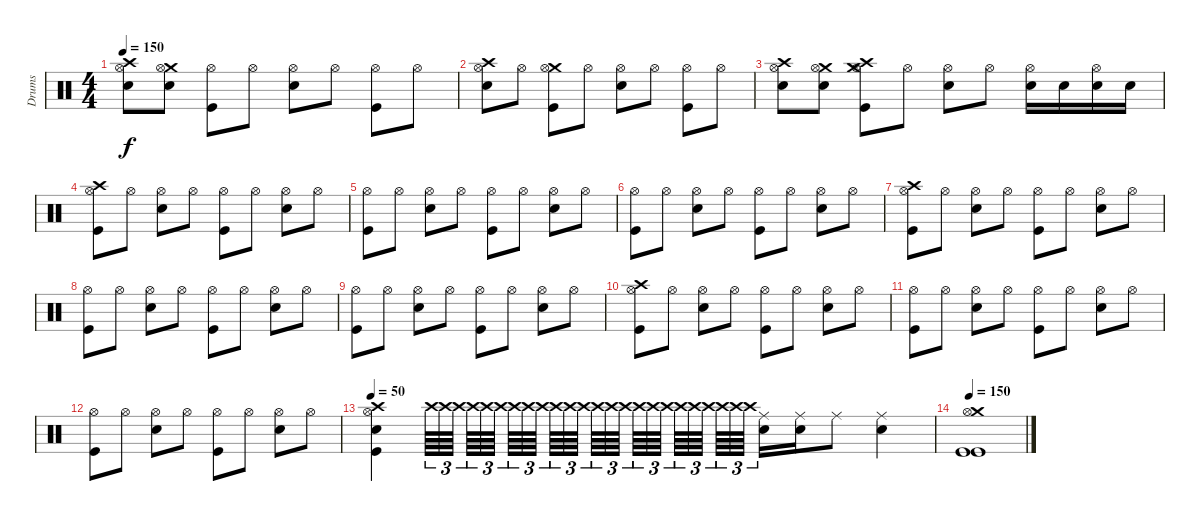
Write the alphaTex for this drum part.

\track ("Drums" "Drums") {instrument percussion}
\staff {score}
\articulation defaults
\ts (4 4)
\tempo 150
\clef neutral
\ks c
("Crash high (hit)" "Hi-Hat (open)" "Snare (hit) 2").8{dy f} ("Crash medium (hit)" "Hi-Hat (open)" "Snare (hit) 2").8 ("Hi-Hat (open)" "Kick (hit)").8 "Hi-Hat (open)".8 ("Hi-Hat (open)" "Snare (hit) 2").8 "Hi-Hat (open)".8 ("Hi-Hat (open)" "Kick (hit)").8 "Hi-Hat (open)".8 |
("Crash high (hit)" "Hi-Hat (open)" "Snare (hit) 2").8 "Hi-Hat (open)".8 ("Crash medium (hit)" "Hi-Hat (open)" "Kick (hit)").8 "Hi-Hat (open)".8 ("Hi-Hat (open)" "Snare (hit) 2").8 "Hi-Hat (open)".8 ("Hi-Hat (open)" "Kick (hit)").8 "Hi-Hat (open)".8 |
("Crash high (hit)" "Hi-Hat (open)" "Snare (hit) 2").8 ("Crash medium (hit)" "Hi-Hat (open)" "Snare (hit) 2").8 ("Crash high (hit)" "Crash medium (hit)" "Hi-Hat (open)" "Kick (hit)").8 "Hi-Hat (open)".8 ("Hi-Hat (open)" "Snare (hit) 2").8 "Hi-Hat (open)".8 ("Hi-Hat (open)" "Snare (hit) 2").16 "Snare (hit) 2".16 ("Hi-Hat (open)" "Snare (hit) 2").16 "Snare (hit) 2".16 |
("Crash high (hit)" "Hi-Hat (open)" "Kick (hit)").8 "Hi-Hat (open)".8 ("Hi-Hat (open)" "Snare (hit) 2").8 "Hi-Hat (open)".8 ("Hi-Hat (open)" "Kick (hit)").8 "Hi-Hat (open)".8 ("Hi-Hat (open)" "Snare (hit) 2").8 "Hi-Hat (open)".8 |
("Hi-Hat (open)" "Kick (hit)").8 "Hi-Hat (open)".8 ("Hi-Hat (open)" "Snare (hit) 2").8 "Hi-Hat (open)".8 ("Hi-Hat (open)" "Kick (hit)").8 "Hi-Hat (open)".8 ("Hi-Hat (open)" "Snare (hit) 2").8 "Hi-Hat (open)".8 |
("Hi-Hat (open)" "Kick (hit)").8 "Hi-Hat (open)".8 ("Hi-Hat (open)" "Snare (hit) 2").8 "Hi-Hat (open)".8 ("Hi-Hat (open)" "Kick (hit)").8 "Hi-Hat (open)".8 ("Hi-Hat (open)" "Snare (hit) 2").8 "Hi-Hat (open)".8 |
("Crash high (hit)" "Hi-Hat (open)" "Kick (hit)").8 "Hi-Hat (open)".8 ("Hi-Hat (open)" "Snare (hit) 2").8 "Hi-Hat (open)".8 ("Hi-Hat (open)" "Kick (hit)").8 "Hi-Hat (open)".8 ("Hi-Hat (open)" "Snare (hit) 2").8 "Hi-Hat (open)".8 |
("Hi-Hat (open)" "Kick (hit)").8 "Hi-Hat (open)".8 ("Hi-Hat (open)" "Snare (hit) 2").8 "Hi-Hat (open)".8 ("Hi-Hat (open)" "Kick (hit)").8 "Hi-Hat (open)".8 ("Hi-Hat (open)" "Snare (hit) 2").8 "Hi-Hat (open)".8 |
("Hi-Hat (open)" "Kick (hit)").8 "Hi-Hat (open)".8 ("Hi-Hat (open)" "Snare (hit) 2").8 "Hi-Hat (open)".8 ("Hi-Hat (open)" "Kick (hit)").8 "Hi-Hat (open)".8 ("Hi-Hat (open)" "Snare (hit) 2").8 "Hi-Hat (open)".8 |
("Crash high (hit)" "Hi-Hat (open)" "Kick (hit)").8 "Hi-Hat (open)".8 ("Hi-Hat (open)" "Snare (hit) 2").8 "Hi-Hat (open)".8 ("Hi-Hat (open)" "Kick (hit)").8 "Hi-Hat (open)".8 ("Hi-Hat (open)" "Snare (hit) 2").8 "Hi-Hat (open)".8 |
("Hi-Hat (open)" "Kick (hit)").8 "Hi-Hat (open)".8 ("Hi-Hat (open)" "Snare (hit) 2").8 "Hi-Hat (open)".8 ("Hi-Hat (open)" "Kick (hit)").8 "Hi-Hat (open)".8 ("Hi-Hat (open)" "Snare (hit) 2").8 "Hi-Hat (open)".8 |
("Hi-Hat (open)" "Kick (hit)").8 "Hi-Hat (open)".8 ("Hi-Hat (open)" "Snare (hit) 2").8 "Hi-Hat (open)".8 ("Hi-Hat (open)" "Kick (hit)").8 "Hi-Hat (open)".8 ("Hi-Hat (open)" "Snare (hit) 2").8 "Hi-Hat (open)".8 |
\tempo 50
("Crash high (hit)" "Hi-Hat (open)" "Snare (hit) 2" "Kick (hit)").4 "Crash high (hit)".64{tu (3 2)} "Crash high (hit)".64{tu (3 2)} "Crash high (hit)".64{tu (3 2)} "Crash high (hit)".64{tu (3 2)} "Crash high (hit)".64{tu (3 2)} "Crash high (hit)".64{tu (3 2)} "Crash high (hit)".64{tu (3 2)} "Crash high (hit)".64{tu (3 2)} "Crash high (hit)".64{tu (3 2)} "Crash high (hit)".64{tu (3 2)} "Crash high (hit)".64{tu (3 2)} "Crash high (hit)".64{tu (3 2)} "Crash high (hit)".64{tu (3 2)} "Crash high (hit)".64{tu (3 2)} "Crash high (hit)".64{tu (3 2)} "Crash high (hit)".64{tu (3 2)} "Crash high (hit)".64{tu (3 2)} "Crash high (hit)".64{tu (3 2)} "Crash high (hit)".64{tu (3 2)} "Crash high (hit)".64{tu (3 2)} "Crash high (hit)".64{tu (3 2)} "Crash high (hit)".64{tu (3 2)} "Crash high (hit)".64{tu (3 2)} "Crash high (hit)".64{tu (3 2)} ("Ride (middle)" "Electric Snare (hit)").16 ("Ride (middle)" "Electric Snare (hit)").16 "Ride (middle)".8 ("Ride (middle)" "Electric Snare (hit)").4 |
\tempo 150
("Crash medium (hit)" "Hi-Hat (open)" "Kick (hit)" "Kick (hit)").1
